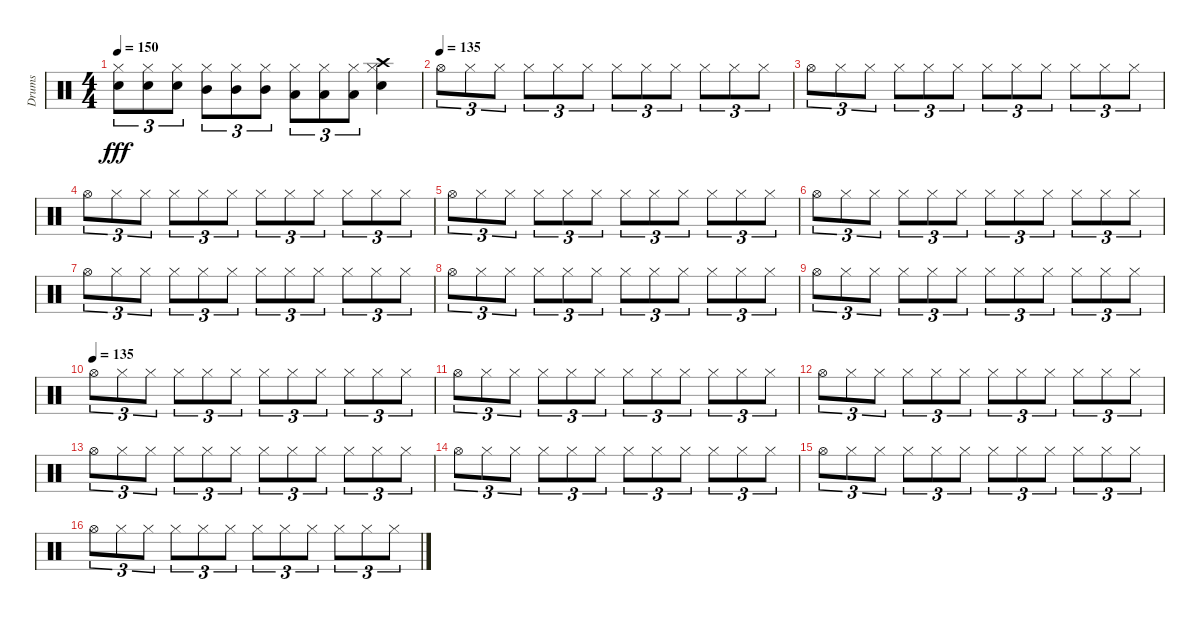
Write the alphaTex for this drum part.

\track ("Drums" "Drums") {instrument percussion}
\staff {score}
\articulation defaults
\ts (4 4)
\tempo 150
\clef neutral
\ks c
("Snare (hit) 2" "Hi-Hat (closed)").8{tu (3 2) dy fff} ("Snare (hit) 2" "Hi-Hat (closed)").8{tu (3 2)} ("Snare (hit) 2" "Hi-Hat (closed)").8{tu (3 2)} ("Mid Tom (hit)" "Hi-Hat (closed)").8{tu (3 2)} ("Mid Tom (hit)" "Hi-Hat (closed)").8{tu (3 2)} ("Mid Tom (hit)" "Hi-Hat (closed)").8{tu (3 2)} ("Low Tom (hit)" "Hi-Hat (closed)").8{tu (3 2)} ("Low Tom (hit)" "Hi-Hat (closed)").8{tu (3 2)} ("Low Tom (hit)" "Hi-Hat (closed)").8{tu (3 2)} ("Hi-Hat (closed)" "Snare (hit) 2" "Crash high (hit)").4 |
\tempo (135)
"Hi-Hat (open)".8{tu (3 2)} "Hi-Hat (closed)".8{tu (3 2)} "Hi-Hat (closed)".8{tu (3 2)} "Hi-Hat (closed)".8{tu (3 2)} "Hi-Hat (closed)".8{tu (3 2)} "Hi-Hat (closed)".8{tu (3 2)} "Hi-Hat (closed)".8{tu (3 2)} "Hi-Hat (closed)".8{tu (3 2)} "Hi-Hat (closed)".8{tu (3 2)} "Hi-Hat (closed)".8{tu (3 2)} "Hi-Hat (closed)".8{tu (3 2)} "Hi-Hat (closed)".8{tu (3 2)} |
"Hi-Hat (open)".8{tu (3 2)} "Hi-Hat (closed)".8{tu (3 2)} "Hi-Hat (closed)".8{tu (3 2)} "Hi-Hat (closed)".8{tu (3 2)} "Hi-Hat (closed)".8{tu (3 2)} "Hi-Hat (closed)".8{tu (3 2)} "Hi-Hat (closed)".8{tu (3 2)} "Hi-Hat (closed)".8{tu (3 2)} "Hi-Hat (closed)".8{tu (3 2)} "Hi-Hat (closed)".8{tu (3 2)} "Hi-Hat (closed)".8{tu (3 2)} "Hi-Hat (closed)".8{tu (3 2)} |
"Hi-Hat (open)".8{tu (3 2)} "Hi-Hat (closed)".8{tu (3 2)} "Hi-Hat (closed)".8{tu (3 2)} "Hi-Hat (closed)".8{tu (3 2)} "Hi-Hat (closed)".8{tu (3 2)} "Hi-Hat (closed)".8{tu (3 2)} "Hi-Hat (closed)".8{tu (3 2)} "Hi-Hat (closed)".8{tu (3 2)} "Hi-Hat (closed)".8{tu (3 2)} "Hi-Hat (closed)".8{tu (3 2)} "Hi-Hat (closed)".8{tu (3 2)} "Hi-Hat (closed)".8{tu (3 2)} |
"Hi-Hat (open)".8{tu (3 2)} "Hi-Hat (closed)".8{tu (3 2)} "Hi-Hat (closed)".8{tu (3 2)} "Hi-Hat (closed)".8{tu (3 2)} "Hi-Hat (closed)".8{tu (3 2)} "Hi-Hat (closed)".8{tu (3 2)} "Hi-Hat (closed)".8{tu (3 2)} "Hi-Hat (closed)".8{tu (3 2)} "Hi-Hat (closed)".8{tu (3 2)} "Hi-Hat (closed)".8{tu (3 2)} "Hi-Hat (closed)".8{tu (3 2)} "Hi-Hat (closed)".8{tu (3 2)} |
"Hi-Hat (open)".8{tu (3 2)} "Hi-Hat (closed)".8{tu (3 2)} "Hi-Hat (closed)".8{tu (3 2)} "Hi-Hat (closed)".8{tu (3 2)} "Hi-Hat (closed)".8{tu (3 2)} "Hi-Hat (closed)".8{tu (3 2)} "Hi-Hat (closed)".8{tu (3 2)} "Hi-Hat (closed)".8{tu (3 2)} "Hi-Hat (closed)".8{tu (3 2)} "Hi-Hat (closed)".8{tu (3 2)} "Hi-Hat (closed)".8{tu (3 2)} "Hi-Hat (closed)".8{tu (3 2)} |
"Hi-Hat (open)".8{tu (3 2)} "Hi-Hat (closed)".8{tu (3 2)} "Hi-Hat (closed)".8{tu (3 2)} "Hi-Hat (closed)".8{tu (3 2)} "Hi-Hat (closed)".8{tu (3 2)} "Hi-Hat (closed)".8{tu (3 2)} "Hi-Hat (closed)".8{tu (3 2)} "Hi-Hat (closed)".8{tu (3 2)} "Hi-Hat (closed)".8{tu (3 2)} "Hi-Hat (closed)".8{tu (3 2)} "Hi-Hat (closed)".8{tu (3 2)} "Hi-Hat (closed)".8{tu (3 2)} |
"Hi-Hat (open)".8{tu (3 2)} "Hi-Hat (closed)".8{tu (3 2)} "Hi-Hat (closed)".8{tu (3 2)} "Hi-Hat (closed)".8{tu (3 2)} "Hi-Hat (closed)".8{tu (3 2)} "Hi-Hat (closed)".8{tu (3 2)} "Hi-Hat (closed)".8{tu (3 2)} "Hi-Hat (closed)".8{tu (3 2)} "Hi-Hat (closed)".8{tu (3 2)} "Hi-Hat (closed)".8{tu (3 2)} "Hi-Hat (closed)".8{tu (3 2)} "Hi-Hat (closed)".8{tu (3 2)} |
"Hi-Hat (open)".8{tu (3 2)} "Hi-Hat (closed)".8{tu (3 2)} "Hi-Hat (closed)".8{tu (3 2)} "Hi-Hat (closed)".8{tu (3 2)} "Hi-Hat (closed)".8{tu (3 2)} "Hi-Hat (closed)".8{tu (3 2)} "Hi-Hat (closed)".8{tu (3 2)} "Hi-Hat (closed)".8{tu (3 2)} "Hi-Hat (closed)".8{tu (3 2)} "Hi-Hat (closed)".8{tu (3 2)} "Hi-Hat (closed)".8{tu (3 2)} "Hi-Hat (closed)".8{tu (3 2)} |
\tempo (135)
"Hi-Hat (open)".8{tu (3 2)} "Hi-Hat (closed)".8{tu (3 2)} "Hi-Hat (closed)".8{tu (3 2)} "Hi-Hat (closed)".8{tu (3 2)} "Hi-Hat (closed)".8{tu (3 2)} "Hi-Hat (closed)".8{tu (3 2)} "Hi-Hat (closed)".8{tu (3 2)} "Hi-Hat (closed)".8{tu (3 2)} "Hi-Hat (closed)".8{tu (3 2)} "Hi-Hat (closed)".8{tu (3 2)} "Hi-Hat (closed)".8{tu (3 2)} "Hi-Hat (closed)".8{tu (3 2)} |
"Hi-Hat (open)".8{tu (3 2)} "Hi-Hat (closed)".8{tu (3 2)} "Hi-Hat (closed)".8{tu (3 2)} "Hi-Hat (closed)".8{tu (3 2)} "Hi-Hat (closed)".8{tu (3 2)} "Hi-Hat (closed)".8{tu (3 2)} "Hi-Hat (closed)".8{tu (3 2)} "Hi-Hat (closed)".8{tu (3 2)} "Hi-Hat (closed)".8{tu (3 2)} "Hi-Hat (closed)".8{tu (3 2)} "Hi-Hat (closed)".8{tu (3 2)} "Hi-Hat (closed)".8{tu (3 2)} |
"Hi-Hat (open)".8{tu (3 2)} "Hi-Hat (closed)".8{tu (3 2)} "Hi-Hat (closed)".8{tu (3 2)} "Hi-Hat (closed)".8{tu (3 2)} "Hi-Hat (closed)".8{tu (3 2)} "Hi-Hat (closed)".8{tu (3 2)} "Hi-Hat (closed)".8{tu (3 2)} "Hi-Hat (closed)".8{tu (3 2)} "Hi-Hat (closed)".8{tu (3 2)} "Hi-Hat (closed)".8{tu (3 2)} "Hi-Hat (closed)".8{tu (3 2)} "Hi-Hat (closed)".8{tu (3 2)} |
"Hi-Hat (open)".8{tu (3 2)} "Hi-Hat (closed)".8{tu (3 2)} "Hi-Hat (closed)".8{tu (3 2)} "Hi-Hat (closed)".8{tu (3 2)} "Hi-Hat (closed)".8{tu (3 2)} "Hi-Hat (closed)".8{tu (3 2)} "Hi-Hat (closed)".8{tu (3 2)} "Hi-Hat (closed)".8{tu (3 2)} "Hi-Hat (closed)".8{tu (3 2)} "Hi-Hat (closed)".8{tu (3 2)} "Hi-Hat (closed)".8{tu (3 2)} "Hi-Hat (closed)".8{tu (3 2)} |
"Hi-Hat (open)".8{tu (3 2)} "Hi-Hat (closed)".8{tu (3 2)} "Hi-Hat (closed)".8{tu (3 2)} "Hi-Hat (closed)".8{tu (3 2)} "Hi-Hat (closed)".8{tu (3 2)} "Hi-Hat (closed)".8{tu (3 2)} "Hi-Hat (closed)".8{tu (3 2)} "Hi-Hat (closed)".8{tu (3 2)} "Hi-Hat (closed)".8{tu (3 2)} "Hi-Hat (closed)".8{tu (3 2)} "Hi-Hat (closed)".8{tu (3 2)} "Hi-Hat (closed)".8{tu (3 2)} |
"Hi-Hat (open)".8{tu (3 2)} "Hi-Hat (closed)".8{tu (3 2)} "Hi-Hat (closed)".8{tu (3 2)} "Hi-Hat (closed)".8{tu (3 2)} "Hi-Hat (closed)".8{tu (3 2)} "Hi-Hat (closed)".8{tu (3 2)} "Hi-Hat (closed)".8{tu (3 2)} "Hi-Hat (closed)".8{tu (3 2)} "Hi-Hat (closed)".8{tu (3 2)} "Hi-Hat (closed)".8{tu (3 2)} "Hi-Hat (closed)".8{tu (3 2)} "Hi-Hat (closed)".8{tu (3 2)} |
"Hi-Hat (open)".8{tu (3 2)} "Hi-Hat (closed)".8{tu (3 2)} "Hi-Hat (closed)".8{tu (3 2)} "Hi-Hat (closed)".8{tu (3 2)} "Hi-Hat (closed)".8{tu (3 2)} "Hi-Hat (closed)".8{tu (3 2)} "Hi-Hat (closed)".8{tu (3 2)} "Hi-Hat (closed)".8{tu (3 2)} "Hi-Hat (closed)".8{tu (3 2)} "Hi-Hat (closed)".8{tu (3 2)} "Hi-Hat (closed)".8{tu (3 2)} "Hi-Hat (closed)".8{tu (3 2)}
